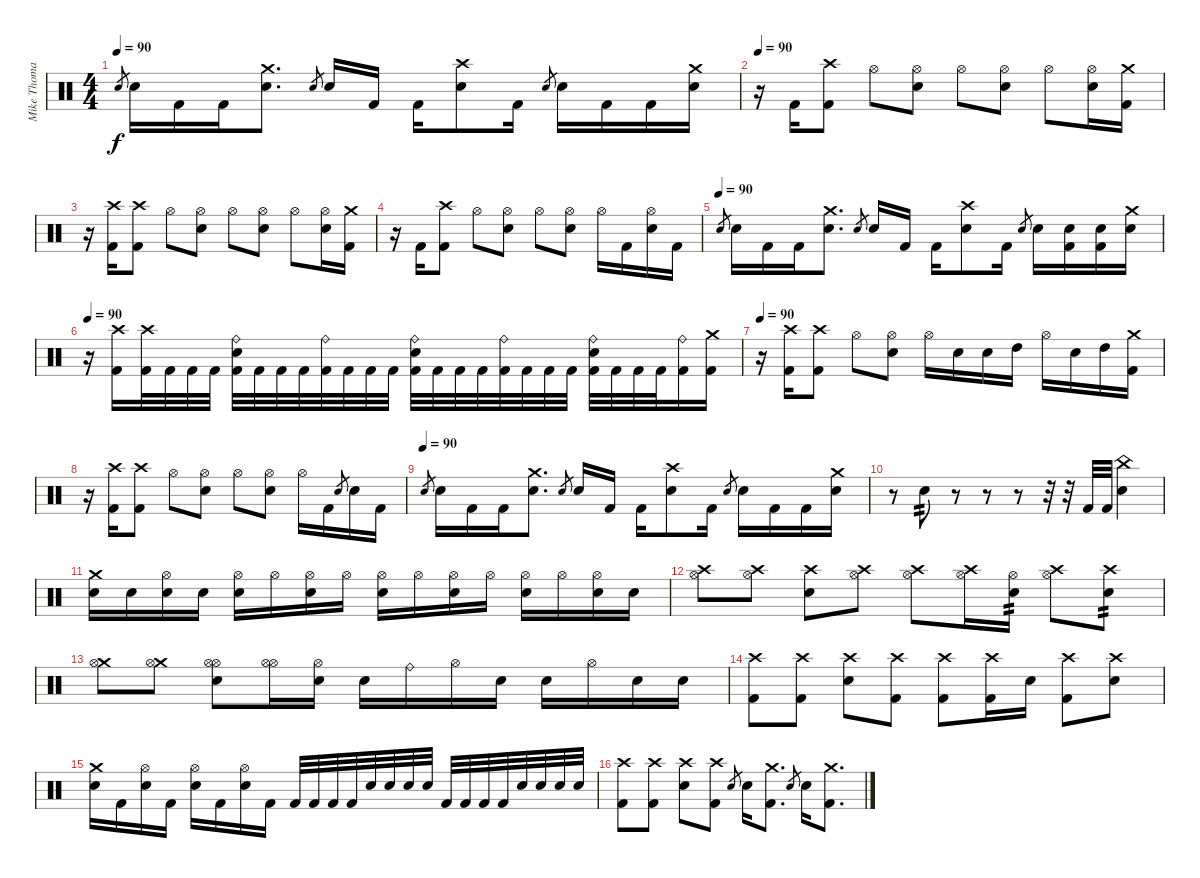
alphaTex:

\track ("Mike Thomas (moose)" "Mike Thoma") {instrument percussion}
\staff {score}
\articulation defaults
\ts (4 4)
\tempo 90
\clef neutral
\ks c "Electric Snare (hit)".8{gr dy f} "Electric Snare (hit)".16 "Kick (hit) 2".16 "Kick (hit) 2".16
("Crash medium (hit)" "Electric Snare (hit)").8{d} "Electric Snare (hit)".8{gr} "Electric Snare (hit)".16 "Kick (hit) 2".16 "Kick (hit) 2".16 ("Crash high (hit)" "Electric Snare (hit)").8 "Kick (hit) 2".16 "Electric Snare (hit)".8{gr} "Electric Snare (hit)".16 "Kick (hit) 2".16 "Kick (hit) 2".16 ("Crash medium (hit)" "Electric Snare (hit)").16 |
\tempo 90
r.16 "Kick (hit) 2".16 ("Crash high (hit)" "Kick (hit) 2").8 "Hi-Hat (open)".8 ("Hi-Hat (open)" "Electric Snare (hit)").8 "Hi-Hat (open)".8 ("Hi-Hat (open)" "Electric Snare (hit)").8 "Hi-Hat (open)".8 ("Hi-Hat (open)" "Electric Snare (hit)").16 ("Crash medium (hit)" "Kick (hit) 2").16 |
r.16 ("Crash high (hit)" "Kick (hit) 2").16 ("Crash high (hit)" "Kick (hit) 2").8 "Hi-Hat (open)".8 ("Hi-Hat (open)" "Electric Snare (hit)").8 "Hi-Hat (open)".8 ("Hi-Hat (open)" "Electric Snare (hit)").8 "Hi-Hat (open)".8 ("Hi-Hat (open)" "Electric Snare (hit)").16 ("Crash medium (hit)" "Kick (hit) 2").16 |
r.16 "Kick (hit) 2".16 ("Crash high (hit)" "Kick (hit) 2").8 "Hi-Hat (open)".8 ("Hi-Hat (open)" "Electric Snare (hit)").8 "Hi-Hat (open)".8 ("Hi-Hat (open)" "Electric Snare (hit)").8 "Hi-Hat (open)".16 "Kick (hit) 2".16 ("Hi-Hat (open)" "Electric Snare (hit)").16 "Kick (hit) 2".16 |
\tempo (90)
"Electric Snare (hit)".8{gr} "Electric Snare (hit)".16 "Kick (hit) 2".16 "Kick (hit) 2".16 ("Crash medium (hit)" "Electric Snare (hit)").8{d} "Electric Snare (hit)".8{gr} "Electric Snare (hit)".16 "Kick (hit) 2".16 "Kick (hit) 2".16 ("Crash high (hit)" "Electric Snare (hit)").8 "Kick (hit) 2".16 "Electric Snare (hit)".8{gr} "Electric Snare (hit)".16 ("Electric Snare (hit)" "Kick (hit) 2").16 ("Electric Snare (hit)" "Kick (hit) 2").16 ("Crash medium (hit)" "Electric Snare (hit)").16 |
\tempo 90
r.16 ("Crash high (hit)" "Kick (hit) 2").16 ("Crash high (hit)" "Kick (hit) 2").32 "Kick (hit) 2".32 "Kick (hit) 2".32 "Kick (hit) 2".32 ("Ride (bell)" "Electric Snare (hit)" "Kick (hit) 2").32 "Kick (hit) 2".32 "Kick (hit) 2".32 "Kick (hit) 2".32 ("Ride (bell)" "Kick (hit) 2").32 "Kick (hit) 2".32 "Kick (hit) 2".32 "Kick (hit) 2".32 ("Ride (bell)" "Electric Snare (hit)" "Kick (hit) 2").32 "Kick (hit) 2".32 "Kick (hit) 2".32 "Kick (hit) 2".32 ("Ride (bell)" "Kick (hit) 2").32 "Kick (hit) 2".32 "Kick (hit) 2".32 "Kick (hit) 2".32 ("Ride (bell)" "Electric Snare (hit)" "Kick (hit) 2").32 "Kick (hit) 2".32 "Kick (hit) 2".32 "Kick (hit) 2".32 ("Ride (bell)" "Kick (hit) 2").16 ("Crash medium (hit)" "Kick (hit) 2").16 |
\tempo 90
r.16 ("Crash high (hit)" "Kick (hit) 2").16 ("Crash high (hit)" "Kick (hit) 2").8 "Hi-Hat (open)".8 ("Hi-Hat (open)" "Electric Snare (hit)").8 "Hi-Hat (open)".16 "Electric Snare (hit)".16 "Electric Snare (hit)".16 "High Tom (hit)".16 "Hi-Hat (open)".16 "Electric Snare (hit)".16 "High Tom (hit)".16 ("Crash medium (hit)" "Kick (hit) 2").16 |
r.16 ("Crash high (hit)" "Kick (hit) 2").16 ("Crash high (hit)" "Kick (hit) 2").8 "Hi-Hat (open)".8 ("Hi-Hat (open)" "Electric Snare (hit)").8 "Hi-Hat (open)".8 ("Hi-Hat (open)" "Electric Snare (hit)").8 "Hi-Hat (open)".16 "Kick (hit) 2".16 "Electric Snare (hit)".8{gr} "Electric Snare (hit)".16 "Kick (hit) 2".16 |
\tempo (90)
"Electric Snare (hit)".8{gr} "Electric Snare (hit)".16 "Kick (hit) 2".16 "Kick (hit) 2".16 ("Crash medium (hit)" "Electric Snare (hit)").8{d} "Electric Snare (hit)".8{gr} "Electric Snare (hit)".16 "Kick (hit) 2".16 "Kick (hit) 2".16 ("Crash high (hit)" "Electric Snare (hit)").8 "Kick (hit) 2".16 "Electric Snare (hit)".8{gr} "Electric Snare (hit)".16 "Kick (hit) 2".16 "Kick (hit) 2".16 ("Crash medium (hit)" "Electric Snare (hit)").16 |
r.8 "Electric Snare (hit)".8{tp 2} r.8 r.8 r.8 r.32 r.32 "Kick (hit) 2".32 "Kick (hit) 2".32 ("China (hit)" "Electric Snare (hit)").4 |
("Crash medium (hit)" "Electric Snare (hit)").16 "Snare (hit) 2".16 ("Hi-Hat (open)" "Electric Snare (hit)").16 "Snare (hit) 2".16 ("Hi-Hat (open)" "Electric Snare (hit)").16 "Hi-Hat (open)".16 ("Hi-Hat (open)" "Electric Snare (hit)").16 "Hi-Hat (open)".16 ("Hi-Hat (open)" "Electric Snare (hit)").16 "Hi-Hat (open)".16 ("Hi-Hat (open)" "Electric Snare (hit)").16 "Hi-Hat (open)".16 ("Hi-Hat (open)" "Electric Snare (hit)").16 "Hi-Hat (open)".16 ("Hi-Hat (open)" "Electric Snare (hit)").16 "Electric Snare (hit)".16 |
("Crash high (hit)" "Hi-Hat (open)").8 ("Crash high (hit)" "Hi-Hat (open)").8 ("Crash high (hit)" "Electric Snare (hit)").8 ("Crash high (hit)" "Hi-Hat (open)").8 ("Crash high (hit)" "Hi-Hat (open)").8 ("Crash high (hit)" "Hi-Hat (open)").16 ("Electric Snare (hit)" "Hi-Hat (open)").16{tp 2} ("Crash high (hit)" "Hi-Hat (open)").8 ("Crash high (hit)" "Electric Snare (hit)").8{tp 2} |
("Crash medium (hit)" "Hi-Hat (open)").8 ("Crash medium (hit)" "Hi-Hat (open)").8 ("Hi-Hat (open)" "Electric Snare (hit)" "Hi-Hat (open)").8 ("Hi-Hat (open)" "Hi-Hat (open)").16 ("Electric Snare (hit)" "Hi-Hat (open)").16 "Electric Snare (hit)".16 "Ride (bell)".16 "Hi-Hat (open)".16 "Electric Snare (hit)".16 "Electric Snare (hit)".16 "Hi-Hat (open)".16 "Electric Snare (hit)".16 "Electric Snare (hit)".16 |
("Crash high (hit)" "Kick (hit) 2").8 ("Crash high (hit)" "Kick (hit) 2").8 ("Crash high (hit)" "Electric Snare (hit)").8 ("Crash high (hit)" "Kick (hit) 2").8 ("Crash high (hit)" "Kick (hit) 2").8 ("Crash high (hit)" "Kick (hit) 2").16 "Electric Snare (hit)".16 ("Crash high (hit)" "Kick (hit) 2").8 ("Crash high (hit)" "Electric Snare (hit)").8 |
("Crash medium (hit)" "Electric Snare (hit)").16 "Kick (hit) 2".16 ("Hi-Hat (open)" "Electric Snare (hit)").16 "Kick (hit) 2".16 ("Hi-Hat (open)" "Electric Snare (hit)").16 "Kick (hit) 2".16 ("Hi-Hat (open)" "Electric Snare (hit)").16 "Kick (hit) 2".16 "Kick (hit) 2".32 "Kick (hit) 2".32 "Kick (hit) 2".32 "Kick (hit) 2".32 "Electric Snare (hit)".32 "Electric Snare (hit)".32 "Electric Snare (hit)".32 "Electric Snare (hit)".32 "Kick (hit) 2".32 "Kick (hit) 2".32 "Kick (hit) 2".32 "Kick (hit) 2".32 "Electric Snare (hit)".32 "Electric Snare (hit)".32 "Electric Snare (hit)".32 "Electric Snare (hit)".32 |
("Crash high (hit)" "Kick (hit) 2").8 ("Crash high (hit)" "Kick (hit) 2").8 ("Crash high (hit)" "Electric Snare (hit)").8 ("Crash high (hit)" "Kick (hit) 2").8 "Electric Snare (hit)".8{gr} "Electric Snare (hit)".16 ("Crash medium (hit)" "Kick (hit) 2").8{d} "Electric Snare (hit)".8{gr} "Electric Snare (hit)".16 ("Crash medium (hit)" "Kick (hit) 2").8{d}
